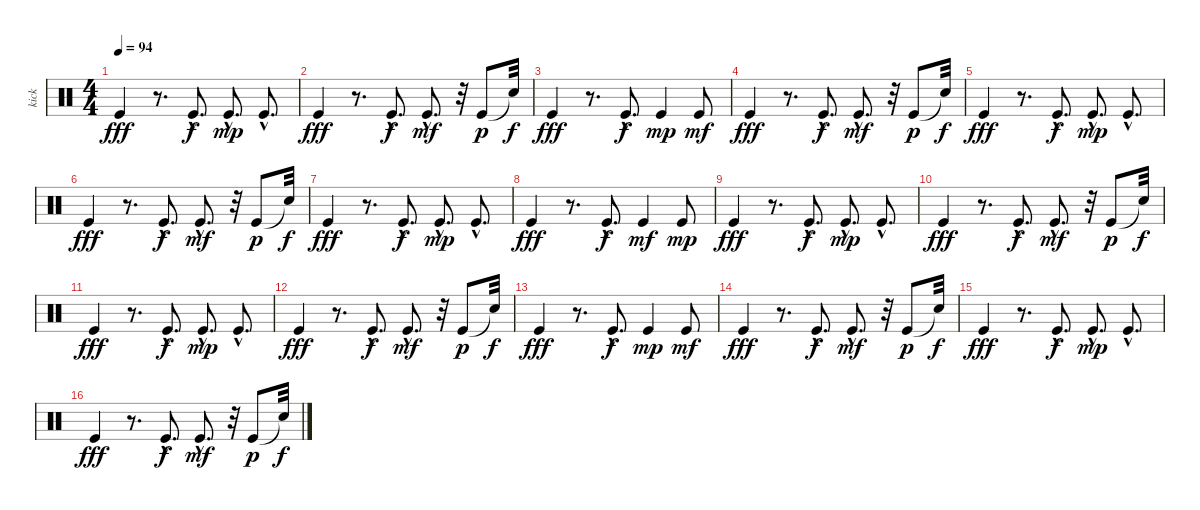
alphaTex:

\track ("kick" "kick") {instrument percussion}
\staff {score}
\articulation defaults
\ts (4 4)
\tempo 94
\clef neutral
\ks c "Kick (hit)".4{dy fff}
r.8{d} "Kick (hit)"{hac}.8{d dy f} "Kick (hit)"{hac}.8{d dy mp} "Kick (hit)"{hac}.8{d} |
"Kick (hit)".4{dy fff} r.8{d} "Kick (hit)"{hac}.8{d dy f} "Kick (hit)"{hac}.8{d dy mf} r.32 "Kick (hit)".8{dy p} "Snare (hit)"{t}.32{dy f} |
"Kick (hit)".4{dy fff} r.8{d} "Kick (hit)"{hac}.8{d dy f} "Kick (hit)".4{dy mp} "Kick (hit)".8{dy mf} |
"Kick (hit)".4{dy fff} r.8{d} "Kick (hit)"{hac}.8{d dy f} "Kick (hit)"{hac}.8{d dy mf} r.32 "Kick (hit)".8{dy p} "Snare (hit)"{t}.32{dy f} |
"Kick (hit)".4{dy fff} r.8{d} "Kick (hit)"{hac}.8{d dy f} "Kick (hit)"{hac}.8{d dy mp} "Kick (hit)"{hac}.8{d} |
"Kick (hit)".4{dy fff} r.8{d} "Kick (hit)"{hac}.8{d dy f} "Kick (hit)"{hac}.8{d dy mf} r.32 "Kick (hit)".8{dy p} "Snare (hit)"{t}.32{dy f} |
"Kick (hit)".4{dy fff} r.8{d} "Kick (hit)"{hac}.8{d dy f} "Kick (hit)"{hac}.8{d dy mp} "Kick (hit)"{hac}.8{d} |
"Kick (hit)".4{dy fff} r.8{d} "Kick (hit)"{hac}.8{d dy f} "Kick (hit)".4{dy mf} "Kick (hit)".8{dy mp} |
"Kick (hit)".4{dy fff} r.8{d} "Kick (hit)"{hac}.8{d dy f} "Kick (hit)"{hac}.8{d dy mp} "Kick (hit)"{hac}.8{d} |
"Kick (hit)".4{dy fff} r.8{d} "Kick (hit)"{hac}.8{d dy f} "Kick (hit)"{hac}.8{d dy mf} r.32 "Kick (hit)".8{dy p} "Snare (hit)"{t}.32{dy f} |
"Kick (hit)".4{dy fff} r.8{d} "Kick (hit)"{hac}.8{d dy f} "Kick (hit)"{hac}.8{d dy mp} "Kick (hit)"{hac}.8{d} |
"Kick (hit)".4{dy fff} r.8{d} "Kick (hit)"{hac}.8{d dy f} "Kick (hit)"{hac}.8{d dy mf} r.32 "Kick (hit)".8{dy p} "Snare (hit)"{t}.32{dy f} |
"Kick (hit)".4{dy fff} r.8{d} "Kick (hit)"{hac}.8{d dy f} "Kick (hit)".4{dy mp} "Kick (hit)".8{dy mf} |
"Kick (hit)".4{dy fff} r.8{d} "Kick (hit)"{hac}.8{d dy f} "Kick (hit)"{hac}.8{d dy mf} r.32 "Kick (hit)".8{dy p} "Snare (hit)"{t}.32{dy f} |
"Kick (hit)".4{dy fff} r.8{d} "Kick (hit)"{hac}.8{d dy f} "Kick (hit)"{hac}.8{d dy mp} "Kick (hit)"{hac}.8{d} |
"Kick (hit)".4{dy fff} r.8{d} "Kick (hit)"{hac}.8{d dy f} "Kick (hit)"{hac}.8{d dy mf} r.32 "Kick (hit)".8{dy p} "Snare (hit)"{t}.32{dy f}
